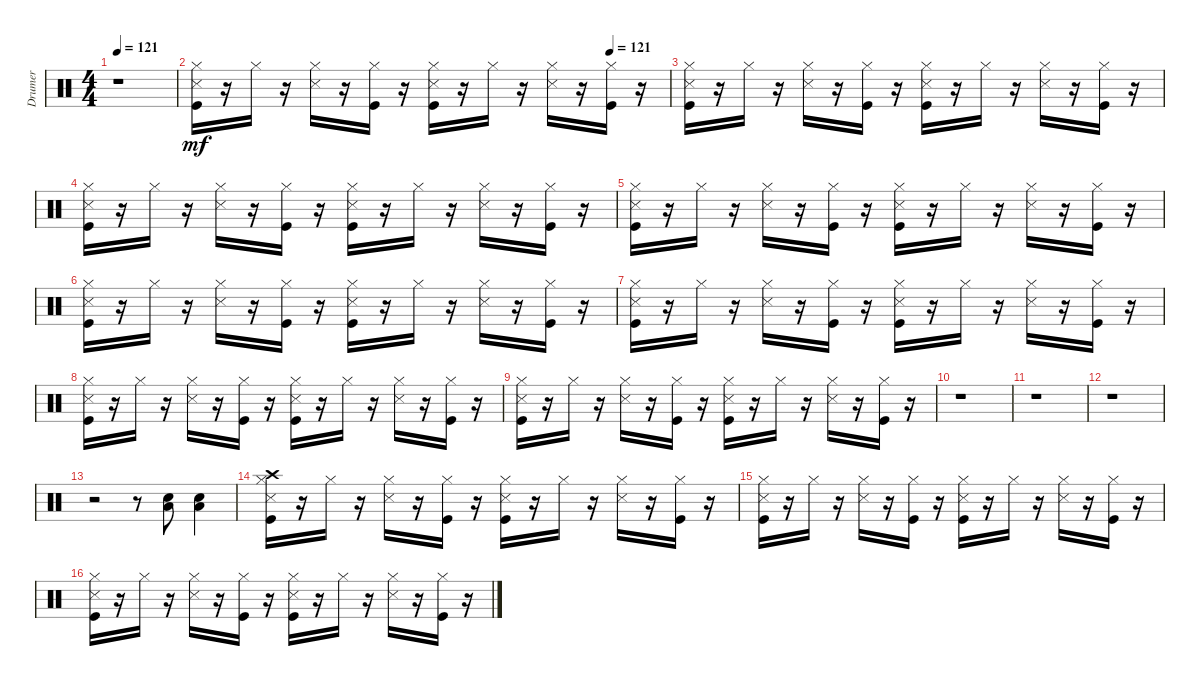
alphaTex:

\track ("Drumer" "Drumer") {instrument percussion}
\staff {score}
\articulation defaults
\ts (4 4)
\tempo 121
\clef neutral
\ks c
r.1{dy mf} |
\tempo (121 0.875)
("Hi-Hat (closed)" "Snare (side stick) 3" "Kick (hit)").16 r.16 "Hi-Hat (closed)".16 r.16 ("Hi-Hat (closed)" "Snare (side stick) 3").16 r.16 ("Hi-Hat (closed)" "Kick (hit)").16 r.16 ("Hi-Hat (closed)" "Snare (side stick) 3" "Kick (hit)").16 r.16 "Hi-Hat (closed)".16 r.16 ("Hi-Hat (closed)" "Snare (side stick) 3").16 r.16 ("Hi-Hat (closed)" "Kick (hit)").16 r.16 |
("Hi-Hat (closed)" "Snare (side stick) 3" "Kick (hit)").16 r.16 "Hi-Hat (closed)".16 r.16 ("Hi-Hat (closed)" "Snare (side stick) 3").16 r.16 ("Hi-Hat (closed)" "Kick (hit)").16 r.16 ("Hi-Hat (closed)" "Snare (side stick) 3" "Kick (hit)").16 r.16 "Hi-Hat (closed)".16 r.16 ("Hi-Hat (closed)" "Snare (side stick) 3").16 r.16 ("Hi-Hat (closed)" "Kick (hit)").16 r.16 |
("Hi-Hat (closed)" "Snare (side stick) 3" "Kick (hit)").16 r.16 "Hi-Hat (closed)".16 r.16 ("Hi-Hat (closed)" "Snare (side stick) 3").16 r.16 ("Hi-Hat (closed)" "Kick (hit)").16 r.16 ("Hi-Hat (closed)" "Snare (side stick) 3" "Kick (hit)").16 r.16 "Hi-Hat (closed)".16 r.16 ("Hi-Hat (closed)" "Snare (side stick) 3").16 r.16 ("Hi-Hat (closed)" "Kick (hit)").16 r.16 |
("Hi-Hat (closed)" "Snare (side stick) 3" "Kick (hit)").16 r.16 "Hi-Hat (closed)".16 r.16 ("Hi-Hat (closed)" "Snare (side stick) 3").16 r.16 ("Hi-Hat (closed)" "Kick (hit)").16 r.16 ("Hi-Hat (closed)" "Snare (side stick) 3" "Kick (hit)").16 r.16 "Hi-Hat (closed)".16 r.16 ("Hi-Hat (closed)" "Snare (side stick) 3").16 r.16 ("Hi-Hat (closed)" "Kick (hit)").16 r.16 |
("Hi-Hat (closed)" "Snare (side stick) 3" "Kick (hit)").16 r.16 "Hi-Hat (closed)".16 r.16 ("Hi-Hat (closed)" "Snare (side stick) 3").16 r.16 ("Hi-Hat (closed)" "Kick (hit)").16 r.16 ("Hi-Hat (closed)" "Snare (side stick) 3" "Kick (hit)").16 r.16 "Hi-Hat (closed)".16 r.16 ("Hi-Hat (closed)" "Snare (side stick) 3").16 r.16 ("Hi-Hat (closed)" "Kick (hit)").16 r.16 |
("Hi-Hat (closed)" "Snare (side stick) 3" "Kick (hit)").16 r.16 "Hi-Hat (closed)".16 r.16 ("Hi-Hat (closed)" "Snare (side stick) 3").16 r.16 ("Hi-Hat (closed)" "Kick (hit)").16 r.16 ("Hi-Hat (closed)" "Snare (side stick) 3" "Kick (hit)").16 r.16 "Hi-Hat (closed)".16 r.16 ("Hi-Hat (closed)" "Snare (side stick) 3").16 r.16 ("Hi-Hat (closed)" "Kick (hit)").16 r.16 |
("Hi-Hat (closed)" "Snare (side stick) 3" "Kick (hit)").16 r.16 "Hi-Hat (closed)".16 r.16 ("Hi-Hat (closed)" "Snare (side stick) 3").16 r.16 ("Hi-Hat (closed)" "Kick (hit)").16 r.16 ("Hi-Hat (closed)" "Snare (side stick) 3" "Kick (hit)").16 r.16 "Hi-Hat (closed)".16 r.16 ("Hi-Hat (closed)" "Snare (side stick) 3").16 r.16 ("Hi-Hat (closed)" "Kick (hit)").16 r.16 |
("Hi-Hat (closed)" "Snare (side stick) 3" "Kick (hit)").16 r.16 "Hi-Hat (closed)".16 r.16 ("Hi-Hat (closed)" "Snare (side stick) 3").16 r.16 ("Hi-Hat (closed)" "Kick (hit)").16 r.16 ("Hi-Hat (closed)" "Snare (side stick) 3" "Kick (hit)").16 r.16 "Hi-Hat (closed)".16 r.16 ("Hi-Hat (closed)" "Snare (side stick) 3").16 r.16 ("Hi-Hat (closed)" "Kick (hit)").16 r.16 |
r.1 |
r.1 |
r.1 |
r.2 r.8 ("Low Floor Tom (hit)" "Snare (hit) 2").8 ("Low Floor Tom (hit)" "Snare (hit) 2").4 |
("Hi-Hat (closed)" "Snare (side stick) 3" "Kick (hit)" "Crash high (hit)").16 r.16 "Hi-Hat (closed)".16 r.16 ("Hi-Hat (closed)" "Snare (side stick) 3").16 r.16 ("Hi-Hat (closed)" "Kick (hit)").16 r.16 ("Hi-Hat (closed)" "Snare (side stick) 3" "Kick (hit)").16 r.16 "Hi-Hat (closed)".16 r.16 ("Hi-Hat (closed)" "Snare (side stick) 3").16 r.16 ("Hi-Hat (closed)" "Kick (hit)").16 r.16 |
("Hi-Hat (closed)" "Snare (side stick) 3" "Kick (hit)").16 r.16 "Hi-Hat (closed)".16 r.16 ("Hi-Hat (closed)" "Snare (side stick) 3").16 r.16 ("Hi-Hat (closed)" "Kick (hit)").16 r.16 ("Hi-Hat (closed)" "Snare (side stick) 3" "Kick (hit)").16 r.16 "Hi-Hat (closed)".16 r.16 ("Hi-Hat (closed)" "Snare (side stick) 3").16 r.16 ("Hi-Hat (closed)" "Kick (hit)").16 r.16 |
("Hi-Hat (closed)" "Snare (side stick) 3" "Kick (hit)").16 r.16 "Hi-Hat (closed)".16 r.16 ("Hi-Hat (closed)" "Snare (side stick) 3").16 r.16 ("Hi-Hat (closed)" "Kick (hit)").16 r.16 ("Hi-Hat (closed)" "Snare (side stick) 3" "Kick (hit)").16 r.16 "Hi-Hat (closed)".16 r.16 ("Hi-Hat (closed)" "Snare (side stick) 3").16 r.16 ("Hi-Hat (closed)" "Kick (hit)").16 r.16
